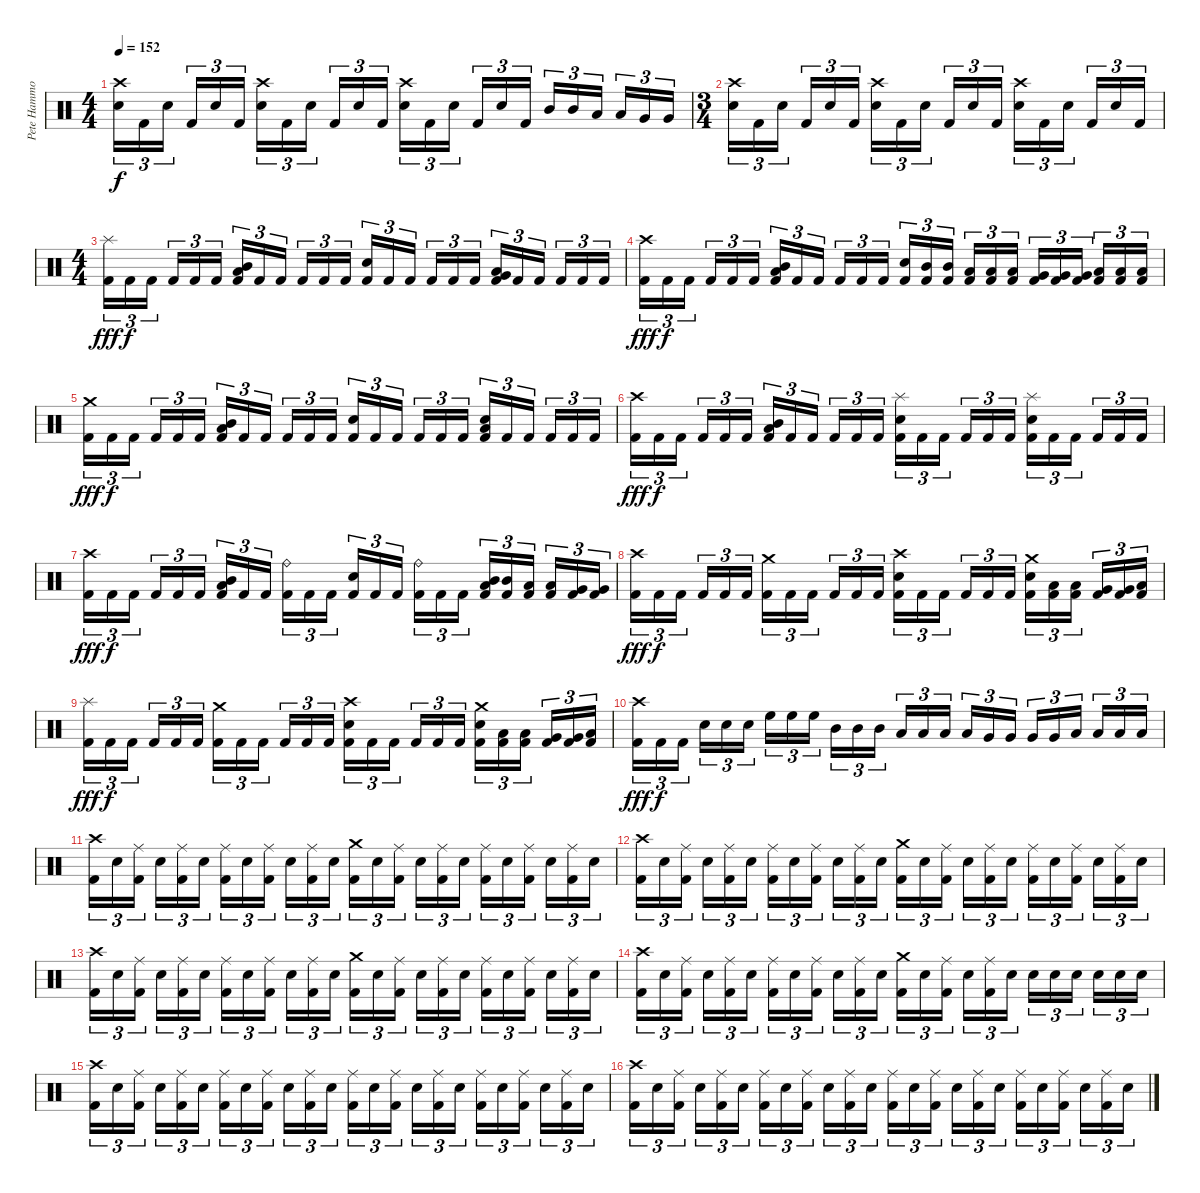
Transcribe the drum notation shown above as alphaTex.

\track ("Pete Hammoura" "Pete Hammo") {instrument percussion}
\staff {score}
\articulation defaults
\ts (4 4)
\tempo 152
\clef neutral
\ks c
("Crash high (hit)" "Electric Snare (hit)").16{tu (3 2) dy f} "Kick (hit) 2".16{tu (3 2)} "Electric Snare (hit)".16{tu (3 2)} "Kick (hit) 2".16{tu (3 2)} "Electric Snare (hit)".16{tu (3 2)} "Kick (hit) 2".16{tu (3 2)} ("Crash high (hit)" "Electric Snare (hit)").16{tu (3 2)} "Kick (hit) 2".16{tu (3 2)} "Electric Snare (hit)".16{tu (3 2)} "Kick (hit) 2".16{tu (3 2)} "Electric Snare (hit)".16{tu (3 2)} "Kick (hit) 2".16{tu (3 2)} ("Crash high (hit)" "Electric Snare (hit)").16{tu (3 2)} "Kick (hit) 2".16{tu (3 2)} "Electric Snare (hit)".16{tu (3 2)} "Kick (hit) 2".16{tu (3 2)} "Electric Snare (hit)".16{tu (3 2)} "Kick (hit) 2".16{tu (3 2)} "Mid Tom (hit)".16{tu (3 2)} "Mid Tom (hit)".16{tu (3 2)} "Low Tom (hit)".16{tu (3 2)} "Low Tom (hit)".16{tu (3 2)} "Very Low Tom (hit)".16{tu (3 2)} "Very Low Tom (hit)".16{tu (3 2)} |
\ts (3 4)
("Crash high (hit)" "Electric Snare (hit)").16{tu (3 2)} "Kick (hit) 2".16{tu (3 2)} "Electric Snare (hit)".16{tu (3 2)} "Kick (hit) 2".16{tu (3 2)} "Electric Snare (hit)".16{tu (3 2)} "Kick (hit) 2".16{tu (3 2)} ("Crash high (hit)" "Electric Snare (hit)").16{tu (3 2)} "Kick (hit) 2".16{tu (3 2)} "Electric Snare (hit)".16{tu (3 2)} "Kick (hit) 2".16{tu (3 2)} "Electric Snare (hit)".16{tu (3 2)} "Kick (hit) 2".16{tu (3 2)} ("Crash high (hit)" "Electric Snare (hit)").16{tu (3 2)} "Kick (hit) 2".16{tu (3 2)} "Electric Snare (hit)".16{tu (3 2)} "Kick (hit) 2".16{tu (3 2)} "Electric Snare (hit)".16{tu (3 2)} "Kick (hit) 2".16{tu (3 2)} |
\ts (4 4)
("Splash (hit)" "Kick (hit) 2").16{tu (3 2) dy fff} "Kick (hit) 2".16{tu (3 2) dy f} "Kick (hit) 2".16{tu (3 2)} "Kick (hit) 2".16{tu (3 2)} "Kick (hit) 2".16{tu (3 2)} "Kick (hit) 2".16{tu (3 2)} ("Mid Tom (hit)" "Low Tom (hit)" "Kick (hit) 2").16{tu (3 2)} "Kick (hit) 2".16{tu (3 2)} "Kick (hit) 2".16{tu (3 2)} "Kick (hit) 2".16{tu (3 2)} "Kick (hit) 2".16{tu (3 2)} "Kick (hit) 2".16{tu (3 2)} ("Electric Snare (hit)" "Kick (hit) 2").16{tu (3 2)} "Kick (hit) 2".16{tu (3 2)} "Kick (hit) 2".16{tu (3 2)} "Kick (hit) 2".16{tu (3 2)} "Kick (hit) 2".16{tu (3 2)} "Kick (hit) 2".16{tu (3 2)} ("Low Tom (hit)" "Very Low Tom (hit)" "Kick (hit) 2").16{tu (3 2)} "Kick (hit) 2".16{tu (3 2)} "Kick (hit) 2".16{tu (3 2)} "Kick (hit) 2".16{tu (3 2)} "Kick (hit) 2".16{tu (3 2)} "Kick (hit) 2".16{tu (3 2)} |
("Crash high (hit)" "Kick (hit) 2").16{tu (3 2) dy fff} "Kick (hit) 2".16{tu (3 2) dy f} "Kick (hit) 2".16{tu (3 2)} "Kick (hit) 2".16{tu (3 2)} "Kick (hit) 2".16{tu (3 2)} "Kick (hit) 2".16{tu (3 2)} ("Mid Tom (hit)" "Low Tom (hit)" "Kick (hit) 2").16{tu (3 2)} "Kick (hit) 2".16{tu (3 2)} "Kick (hit) 2".16{tu (3 2)} "Kick (hit) 2".16{tu (3 2)} "Kick (hit) 2".16{tu (3 2)} "Kick (hit) 2".16{tu (3 2)} ("Electric Snare (hit)" "Kick (hit) 2").16{tu (3 2)} ("Mid Tom (hit)" "Kick (hit) 2").16{tu (3 2)} ("Mid Tom (hit)" "Kick (hit) 2").16{tu (3 2)} ("Low Tom (hit)" "Kick (hit) 2").16{tu (3 2)} ("Low Tom (hit)" "Kick (hit) 2").16{tu (3 2)} ("Low Tom (hit)" "Kick (hit) 2").16{tu (3 2)} ("Very Low Tom (hit)" "Kick (hit) 2").16{tu (3 2)} ("Very Low Tom (hit)" "Kick (hit) 2").16{tu (3 2)} ("Very Low Tom (hit)" "Kick (hit) 2").16{tu (3 2)} ("Low Floor Tom (hit)" "Kick (hit) 2").16{tu (3 2)} ("Low Floor Tom (hit)" "Kick (hit) 2").16{tu (3 2)} ("Low Floor Tom (hit)" "Kick (hit) 2").16{tu (3 2)} |
("Crash medium (hit)" "Kick (hit) 2").16{tu (3 2) dy fff} "Kick (hit) 2".16{tu (3 2) dy f} "Kick (hit) 2".16{tu (3 2)} "Kick (hit) 2".16{tu (3 2)} "Kick (hit) 2".16{tu (3 2)} "Kick (hit) 2".16{tu (3 2)} ("Mid Tom (hit)" "Low Tom (hit)" "Kick (hit) 2").16{tu (3 2)} "Kick (hit) 2".16{tu (3 2)} "Kick (hit) 2".16{tu (3 2)} "Kick (hit) 2".16{tu (3 2)} "Kick (hit) 2".16{tu (3 2)} "Kick (hit) 2".16{tu (3 2)} ("Electric Snare (hit)" "Kick (hit) 2").16{tu (3 2)} "Kick (hit) 2".16{tu (3 2)} "Kick (hit) 2".16{tu (3 2)} "Kick (hit) 2".16{tu (3 2)} "Kick (hit) 2".16{tu (3 2)} "Kick (hit) 2".16{tu (3 2)} ("Low Tom (hit)" "Electric Snare (hit)" "Kick (hit) 2").16{tu (3 2)} "Kick (hit) 2".16{tu (3 2)} "Kick (hit) 2".16{tu (3 2)} "Kick (hit) 2".16{tu (3 2)} "Kick (hit) 2".16{tu (3 2)} "Kick (hit) 2".16{tu (3 2)} |
("Crash high (hit)" "Kick (hit) 2").16{tu (3 2) dy fff} "Kick (hit) 2".16{tu (3 2) dy f} "Kick (hit) 2".16{tu (3 2)} "Kick (hit) 2".16{tu (3 2)} "Kick (hit) 2".16{tu (3 2)} "Kick (hit) 2".16{tu (3 2)} ("Mid Tom (hit)" "Low Tom (hit)" "Kick (hit) 2").16{tu (3 2)} "Kick (hit) 2".16{tu (3 2)} "Kick (hit) 2".16{tu (3 2)} "Kick (hit) 2".16{tu (3 2)} "Kick (hit) 2".16{tu (3 2)} "Kick (hit) 2".16{tu (3 2)} ("Splash (hit)" "Electric Snare (hit)" "Kick (hit) 2").16{tu (3 2)} "Kick (hit) 2".16{tu (3 2)} "Kick (hit) 2".16{tu (3 2)} "Kick (hit) 2".16{tu (3 2)} "Kick (hit) 2".16{tu (3 2)} "Kick (hit) 2".16{tu (3 2)} ("Splash (hit)" "Electric Snare (hit)" "Kick (hit) 2").16{tu (3 2)} "Kick (hit) 2".16{tu (3 2)} "Kick (hit) 2".16{tu (3 2)} "Kick (hit) 2".16{tu (3 2)} "Kick (hit) 2".16{tu (3 2)} "Kick (hit) 2".16{tu (3 2)} |
("Crash high (hit)" "Kick (hit) 2").16{tu (3 2) dy fff} "Kick (hit) 2".16{tu (3 2) dy f} "Kick (hit) 2".16{tu (3 2)} "Kick (hit) 2".16{tu (3 2)} "Kick (hit) 2".16{tu (3 2)} "Kick (hit) 2".16{tu (3 2)} ("Mid Tom (hit)" "Low Tom (hit)" "Kick (hit) 2").16{tu (3 2)} "Kick (hit) 2".16{tu (3 2)} "Kick (hit) 2".16{tu (3 2)} ("Ride (bell)" "Kick (hit) 2").16{tu (3 2)} "Kick (hit) 2".16{tu (3 2)} "Kick (hit) 2".16{tu (3 2)} ("Electric Snare (hit)" "Kick (hit) 2").16{tu (3 2)} "Kick (hit) 2".16{tu (3 2)} "Kick (hit) 2".16{tu (3 2)} ("Ride (bell)" "Kick (hit) 2").16{tu (3 2)} "Kick (hit) 2".16{tu (3 2)} "Kick (hit) 2".16{tu (3 2)} ("Low Tom (hit)" "Mid Tom (hit)" "Kick (hit) 2").16{tu (3 2)} ("Mid Tom (hit)" "Kick (hit) 2").16{tu (3 2)} ("Low Tom (hit)" "Kick (hit) 2").16{tu (3 2)} ("Low Tom (hit)" "Kick (hit) 2").16{tu (3 2)} ("Very Low Tom (hit)" "Kick (hit) 2").16{tu (3 2)} ("Very Low Tom (hit)" "Kick (hit) 2").16{tu (3 2)} |
("Crash high (hit)" "Kick (hit) 2").16{tu (3 2) dy fff} "Kick (hit) 2".16{tu (3 2) dy f} "Kick (hit) 2".16{tu (3 2)} "Kick (hit) 2".16{tu (3 2)} "Kick (hit) 2".16{tu (3 2)} "Kick (hit) 2".16{tu (3 2)} ("Crash medium (hit)" "Kick (hit) 2").16{tu (3 2)} "Kick (hit) 2".16{tu (3 2)} "Kick (hit) 2".16{tu (3 2)} "Kick (hit) 2".16{tu (3 2)} "Kick (hit) 2".16{tu (3 2)} "Kick (hit) 2".16{tu (3 2)} ("Crash high (hit)" "Electric Snare (hit)" "Kick (hit) 2").16{tu (3 2)} "Kick (hit) 2".16{tu (3 2)} "Kick (hit) 2".16{tu (3 2)} "Kick (hit) 2".16{tu (3 2)} "Kick (hit) 2".16{tu (3 2)} "Kick (hit) 2".16{tu (3 2)} ("Crash medium (hit)" "Electric Snare (hit)" "Kick (hit) 2").16{tu (3 2)} ("Low Tom (hit)" "Kick (hit) 2").16{tu (3 2)} ("Low Tom (hit)" "Kick (hit) 2").16{tu (3 2)} ("Very Low Tom (hit)" "Kick (hit) 2").16{tu (3 2)} ("Very Low Tom (hit)" "Kick (hit) 2").16{tu (3 2)} ("Low Floor Tom (hit)" "Kick (hit) 2").16{tu (3 2)} |
("Splash (hit)" "Kick (hit) 2").16{tu (3 2) dy fff} "Kick (hit) 2".16{tu (3 2) dy f} "Kick (hit) 2".16{tu (3 2)} "Kick (hit) 2".16{tu (3 2)} "Kick (hit) 2".16{tu (3 2)} "Kick (hit) 2".16{tu (3 2)} ("Crash medium (hit)" "Kick (hit) 2").16{tu (3 2)} "Kick (hit) 2".16{tu (3 2)} "Kick (hit) 2".16{tu (3 2)} "Kick (hit) 2".16{tu (3 2)} "Kick (hit) 2".16{tu (3 2)} "Kick (hit) 2".16{tu (3 2)} ("Crash high (hit)" "Electric Snare (hit)" "Kick (hit) 2").16{tu (3 2)} "Kick (hit) 2".16{tu (3 2)} "Kick (hit) 2".16{tu (3 2)} "Kick (hit) 2".16{tu (3 2)} "Kick (hit) 2".16{tu (3 2)} "Kick (hit) 2".16{tu (3 2)} ("Crash medium (hit)" "Electric Snare (hit)" "Kick (hit) 2").16{tu (3 2)} ("Low Tom (hit)" "Kick (hit) 2").16{tu (3 2)} ("Low Tom (hit)" "Kick (hit) 2").16{tu (3 2)} ("Very Low Tom (hit)" "Kick (hit) 2").16{tu (3 2)} ("Very Low Tom (hit)" "Kick (hit) 2").16{tu (3 2)} ("Low Floor Tom (hit)" "Kick (hit) 2").16{tu (3 2)} |
("Crash high (hit)" "Kick (hit) 2").16{tu (3 2) dy fff} "Kick (hit) 2".16{tu (3 2) dy f} "Kick (hit) 2".16{tu (3 2)} "Electric Snare (hit)".16{tu (3 2)} "Electric Snare (hit)".16{tu (3 2)} "Electric Snare (hit)".16{tu (3 2)} "High Floor Tom (hit)".16{tu (3 2)} "High Floor Tom (hit)".16{tu (3 2)} "High Floor Tom (hit)".16{tu (3 2)} "Mid Tom (hit)".16{tu (3 2)} "Mid Tom (hit)".16{tu (3 2)} "Mid Tom (hit)".16{tu (3 2)} "Low Tom (hit)".16{tu (3 2)} "Low Tom (hit)".16{tu (3 2)} "Low Tom (hit)".16{tu (3 2)} "Low Tom (hit)".16{tu (3 2)} "Very Low Tom (hit)".16{tu (3 2)} "Very Low Tom (hit)".16{tu (3 2)} "Very Low Tom (hit)".16{tu (3 2)} "Very Low Tom (hit)".16{tu (3 2)} "Low Floor Tom (hit)".16{tu (3 2)} "Low Floor Tom (hit)".16{tu (3 2)} "Low Floor Tom (hit)".16{tu (3 2)} "Low Floor Tom (hit)".16{tu (3 2)} |
("Crash high (hit)" "Kick (hit) 2").16{tu (3 2)} "Electric Snare (hit)".16{tu (3 2)} ("Ride (middle)" "Kick (hit) 2").16{tu (3 2)} "Electric Snare (hit)".16{tu (3 2)} ("Ride (middle)" "Kick (hit) 2").16{tu (3 2)} "Electric Snare (hit)".16{tu (3 2)} ("Ride (middle)" "Kick (hit) 2").16{tu (3 2)} "Electric Snare (hit)".16{tu (3 2)} ("Ride (middle)" "Kick (hit) 2").16{tu (3 2)} "Electric Snare (hit)".16{tu (3 2)} ("Ride (middle)" "Kick (hit) 2").16{tu (3 2)} "Electric Snare (hit)".16{tu (3 2)} ("Crash medium (hit)" "Kick (hit) 2").16{tu (3 2)} "Electric Snare (hit)".16{tu (3 2)} ("Ride (middle)" "Kick (hit) 2").16{tu (3 2)} "Electric Snare (hit)".16{tu (3 2)} ("Ride (middle)" "Kick (hit) 2").16{tu (3 2)} "Electric Snare (hit)".16{tu (3 2)} ("Ride (middle)" "Kick (hit) 2").16{tu (3 2)} "Electric Snare (hit)".16{tu (3 2)} ("Ride (middle)" "Kick (hit) 2").16{tu (3 2)} "Electric Snare (hit)".16{tu (3 2)} ("Ride (middle)" "Kick (hit) 2").16{tu (3 2)} "Electric Snare (hit)".16{tu (3 2)} |
("Crash high (hit)" "Kick (hit) 2").16{tu (3 2)} "Electric Snare (hit)".16{tu (3 2)} ("Ride (middle)" "Kick (hit) 2").16{tu (3 2)} "Electric Snare (hit)".16{tu (3 2)} ("Ride (middle)" "Kick (hit) 2").16{tu (3 2)} "Electric Snare (hit)".16{tu (3 2)} ("Ride (middle)" "Kick (hit) 2").16{tu (3 2)} "Electric Snare (hit)".16{tu (3 2)} ("Ride (middle)" "Kick (hit) 2").16{tu (3 2)} "Electric Snare (hit)".16{tu (3 2)} ("Ride (middle)" "Kick (hit) 2").16{tu (3 2)} "Electric Snare (hit)".16{tu (3 2)} ("Crash medium (hit)" "Kick (hit) 2").16{tu (3 2)} "Electric Snare (hit)".16{tu (3 2)} ("Ride (middle)" "Kick (hit) 2").16{tu (3 2)} "Electric Snare (hit)".16{tu (3 2)} ("Ride (middle)" "Kick (hit) 2").16{tu (3 2)} "Electric Snare (hit)".16{tu (3 2)} ("Ride (middle)" "Kick (hit) 2").16{tu (3 2)} "Electric Snare (hit)".16{tu (3 2)} ("Ride (middle)" "Kick (hit) 2").16{tu (3 2)} "Electric Snare (hit)".16{tu (3 2)} ("Ride (middle)" "Kick (hit) 2").16{tu (3 2)} "Electric Snare (hit)".16{tu (3 2)} |
("Crash high (hit)" "Kick (hit) 2").16{tu (3 2)} "Electric Snare (hit)".16{tu (3 2)} ("Ride (middle)" "Kick (hit) 2").16{tu (3 2)} "Electric Snare (hit)".16{tu (3 2)} ("Ride (middle)" "Kick (hit) 2").16{tu (3 2)} "Electric Snare (hit)".16{tu (3 2)} ("Ride (middle)" "Kick (hit) 2").16{tu (3 2)} "Electric Snare (hit)".16{tu (3 2)} ("Ride (middle)" "Kick (hit) 2").16{tu (3 2)} "Electric Snare (hit)".16{tu (3 2)} ("Ride (middle)" "Kick (hit) 2").16{tu (3 2)} "Electric Snare (hit)".16{tu (3 2)} ("Crash medium (hit)" "Kick (hit) 2").16{tu (3 2)} "Electric Snare (hit)".16{tu (3 2)} ("Ride (middle)" "Kick (hit) 2").16{tu (3 2)} "Electric Snare (hit)".16{tu (3 2)} ("Ride (middle)" "Kick (hit) 2").16{tu (3 2)} "Electric Snare (hit)".16{tu (3 2)} ("Ride (middle)" "Kick (hit) 2").16{tu (3 2)} "Electric Snare (hit)".16{tu (3 2)} ("Ride (middle)" "Kick (hit) 2").16{tu (3 2)} "Electric Snare (hit)".16{tu (3 2)} ("Ride (middle)" "Kick (hit) 2").16{tu (3 2)} "Electric Snare (hit)".16{tu (3 2)} |
("Crash high (hit)" "Kick (hit) 2").16{tu (3 2)} "Electric Snare (hit)".16{tu (3 2)} ("Ride (middle)" "Kick (hit) 2").16{tu (3 2)} "Electric Snare (hit)".16{tu (3 2)} ("Ride (middle)" "Kick (hit) 2").16{tu (3 2)} "Electric Snare (hit)".16{tu (3 2)} ("Ride (middle)" "Kick (hit) 2").16{tu (3 2)} "Electric Snare (hit)".16{tu (3 2)} ("Ride (middle)" "Kick (hit) 2").16{tu (3 2)} "Electric Snare (hit)".16{tu (3 2)} ("Ride (middle)" "Kick (hit) 2").16{tu (3 2)} "Electric Snare (hit)".16{tu (3 2)} ("Crash medium (hit)" "Kick (hit) 2").16{tu (3 2)} "Electric Snare (hit)".16{tu (3 2)} ("Ride (middle)" "Kick (hit) 2").16{tu (3 2)} "Electric Snare (hit)".16{tu (3 2)} ("Ride (middle)" "Kick (hit) 2").16{tu (3 2)} "Electric Snare (hit)".16{tu (3 2)} "Electric Snare (hit)".16{tu (3 2)} "Electric Snare (hit)".16{tu (3 2)} "Electric Snare (hit)".16{tu (3 2)} "Electric Snare (hit)".16{tu (3 2)} "Electric Snare (hit)".16{tu (3 2)} "Electric Snare (hit)".16{tu (3 2)} |
("Crash high (hit)" "Kick (hit) 2").16{tu (3 2)} "Electric Snare (hit)".16{tu (3 2)} ("Ride (middle)" "Kick (hit) 2").16{tu (3 2)} "Electric Snare (hit)".16{tu (3 2)} ("Ride (middle)" "Kick (hit) 2").16{tu (3 2)} "Electric Snare (hit)".16{tu (3 2)} ("Ride (middle)" "Kick (hit) 2").16{tu (3 2)} "Electric Snare (hit)".16{tu (3 2)} ("Ride (middle)" "Kick (hit) 2").16{tu (3 2)} "Electric Snare (hit)".16{tu (3 2)} ("Ride (middle)" "Kick (hit) 2").16{tu (3 2)} "Electric Snare (hit)".16{tu (3 2)} ("Ride (middle)" "Kick (hit) 2").16{tu (3 2)} "Electric Snare (hit)".16{tu (3 2)} ("Ride (middle)" "Kick (hit) 2").16{tu (3 2)} "Electric Snare (hit)".16{tu (3 2)} ("Ride (middle)" "Kick (hit) 2").16{tu (3 2)} "Electric Snare (hit)".16{tu (3 2)} ("Ride (middle)" "Kick (hit) 2").16{tu (3 2)} "Electric Snare (hit)".16{tu (3 2)} ("Ride (middle)" "Kick (hit) 2").16{tu (3 2)} "Electric Snare (hit)".16{tu (3 2)} ("Ride (middle)" "Kick (hit) 2").16{tu (3 2)} "Electric Snare (hit)".16{tu (3 2)} |
("Crash high (hit)" "Kick (hit) 2").16{tu (3 2)} "Electric Snare (hit)".16{tu (3 2)} ("Ride (middle)" "Kick (hit) 2").16{tu (3 2)} "Electric Snare (hit)".16{tu (3 2)} ("Ride (middle)" "Kick (hit) 2").16{tu (3 2)} "Electric Snare (hit)".16{tu (3 2)} ("Ride (middle)" "Kick (hit) 2").16{tu (3 2)} "Electric Snare (hit)".16{tu (3 2)} ("Ride (middle)" "Kick (hit) 2").16{tu (3 2)} "Electric Snare (hit)".16{tu (3 2)} ("Ride (middle)" "Kick (hit) 2").16{tu (3 2)} "Electric Snare (hit)".16{tu (3 2)} ("Ride (middle)" "Kick (hit) 2").16{tu (3 2)} "Electric Snare (hit)".16{tu (3 2)} ("Ride (middle)" "Kick (hit) 2").16{tu (3 2)} "Electric Snare (hit)".16{tu (3 2)} ("Ride (middle)" "Kick (hit) 2").16{tu (3 2)} "Electric Snare (hit)".16{tu (3 2)} ("Ride (middle)" "Kick (hit) 2").16{tu (3 2)} "Electric Snare (hit)".16{tu (3 2)} ("Ride (middle)" "Kick (hit) 2").16{tu (3 2)} "Electric Snare (hit)".16{tu (3 2)} ("Ride (middle)" "Kick (hit) 2").16{tu (3 2)} "Electric Snare (hit)".16{tu (3 2)}
